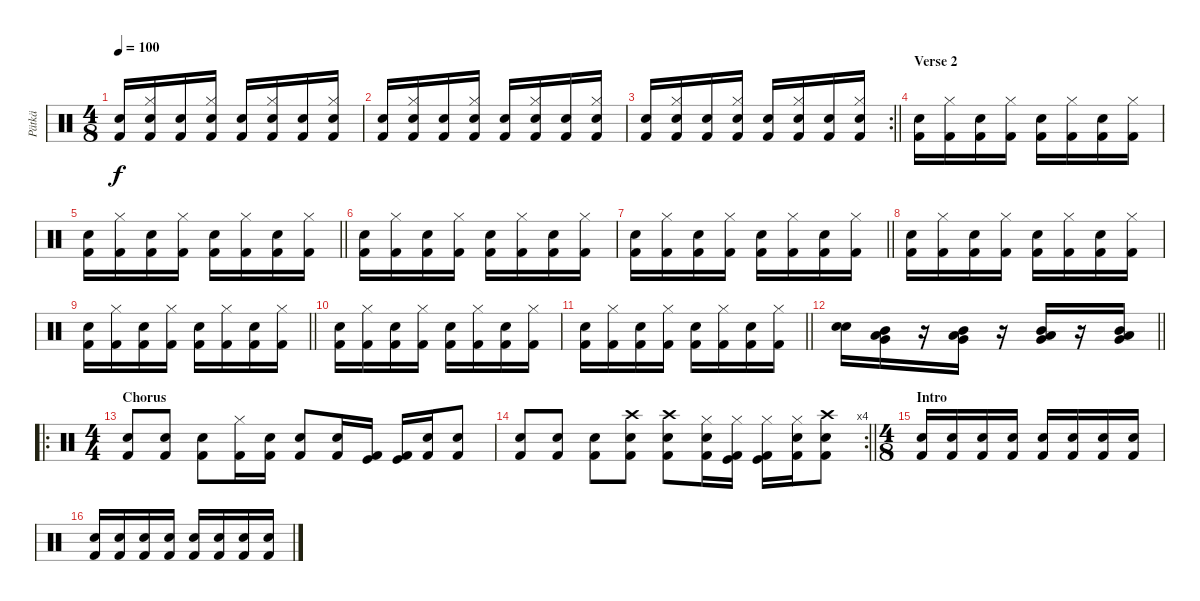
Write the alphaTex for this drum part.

\track ("Pätkä" "Pätkä") {instrument percussion}
\staff {score}
\articulation defaults
\ts (4 8)
\tempo 100
\clef neutral
\ks c
("Snare (hit) 2" "Kick (hit) 2").16{dy f} ("Hi-Hat (closed)" "Electric Snare (hit)" "Kick (hit) 2").16 ("Snare (hit) 2" "Kick (hit) 2").16 ("Hi-Hat (closed)" "Electric Snare (hit)" "Kick (hit) 2").16 ("Snare (hit) 2" "Kick (hit) 2").16 ("Hi-Hat (closed)" "Electric Snare (hit)" "Kick (hit) 2").16 ("Snare (hit) 2" "Kick (hit) 2").16 ("Hi-Hat (closed)" "Electric Snare (hit)" "Kick (hit) 2").16 |
("Snare (hit) 2" "Kick (hit) 2").16 ("Hi-Hat (closed)" "Electric Snare (hit)" "Kick (hit) 2").16 ("Snare (hit) 2" "Kick (hit) 2").16 ("Hi-Hat (closed)" "Electric Snare (hit)" "Kick (hit) 2").16 ("Snare (hit) 2" "Kick (hit) 2").16 ("Hi-Hat (closed)" "Electric Snare (hit)" "Kick (hit) 2").16 ("Snare (hit) 2" "Kick (hit) 2").16 ("Hi-Hat (closed)" "Electric Snare (hit)" "Kick (hit) 2").16 |
\rc 2
\barLineRight lightlight
("Snare (hit) 2" "Kick (hit) 2").16 ("Hi-Hat (closed)" "Electric Snare (hit)" "Kick (hit) 2").16 ("Snare (hit) 2" "Kick (hit) 2").16 ("Hi-Hat (closed)" "Electric Snare (hit)" "Kick (hit) 2").16 ("Snare (hit) 2" "Kick (hit) 2").16 ("Hi-Hat (closed)" "Electric Snare (hit)" "Kick (hit) 2").16 ("Snare (hit) 2" "Kick (hit) 2").16 ("Hi-Hat (closed)" "Electric Snare (hit)" "Kick (hit) 2").16 |
\section ("" "Verse 2")
("Snare (hit) 2" "Kick (hit) 2").16 ("Hi-Hat (closed)" "Kick (hit) 2").16 ("Snare (hit) 2" "Kick (hit) 2").16 ("Hi-Hat (closed)" "Kick (hit) 2").16 ("Snare (hit) 2" "Kick (hit) 2").16 ("Hi-Hat (closed)" "Kick (hit) 2").16 ("Snare (hit) 2" "Kick (hit) 2").16 ("Hi-Hat (closed)" "Kick (hit) 2").16 |
\barLineRight lightlight
("Snare (hit) 2" "Kick (hit) 2").16 ("Hi-Hat (closed)" "Kick (hit) 2").16 ("Snare (hit) 2" "Kick (hit) 2").16 ("Hi-Hat (closed)" "Kick (hit) 2").16 ("Snare (hit) 2" "Kick (hit) 2").16 ("Hi-Hat (closed)" "Kick (hit) 2").16 ("Snare (hit) 2" "Kick (hit) 2").16 ("Hi-Hat (closed)" "Kick (hit) 2").16 |
("Snare (hit) 2" "Kick (hit) 2").16 ("Hi-Hat (closed)" "Kick (hit) 2").16 ("Snare (hit) 2" "Kick (hit) 2").16 ("Hi-Hat (closed)" "Kick (hit) 2").16 ("Snare (hit) 2" "Kick (hit) 2").16 ("Hi-Hat (closed)" "Kick (hit) 2").16 ("Snare (hit) 2" "Kick (hit) 2").16 ("Hi-Hat (closed)" "Kick (hit) 2").16 |
\barLineRight lightlight
("Snare (hit) 2" "Kick (hit) 2").16 ("Hi-Hat (closed)" "Kick (hit) 2").16 ("Snare (hit) 2" "Kick (hit) 2").16 ("Hi-Hat (closed)" "Kick (hit) 2").16 ("Snare (hit) 2" "Kick (hit) 2").16 ("Hi-Hat (closed)" "Kick (hit) 2").16 ("Snare (hit) 2" "Kick (hit) 2").16 ("Hi-Hat (closed)" "Kick (hit) 2").16 |
("Snare (hit) 2" "Kick (hit) 2").16 ("Hi-Hat (closed)" "Kick (hit) 2").16 ("Snare (hit) 2" "Kick (hit) 2").16 ("Hi-Hat (closed)" "Kick (hit) 2").16 ("Snare (hit) 2" "Kick (hit) 2").16 ("Hi-Hat (closed)" "Kick (hit) 2").16 ("Snare (hit) 2" "Kick (hit) 2").16 ("Hi-Hat (closed)" "Kick (hit) 2").16 |
\barLineRight lightlight
("Snare (hit) 2" "Kick (hit) 2").16 ("Hi-Hat (closed)" "Kick (hit) 2").16 ("Snare (hit) 2" "Kick (hit) 2").16 ("Hi-Hat (closed)" "Kick (hit) 2").16 ("Snare (hit) 2" "Kick (hit) 2").16 ("Hi-Hat (closed)" "Kick (hit) 2").16 ("Snare (hit) 2" "Kick (hit) 2").16 ("Hi-Hat (closed)" "Kick (hit) 2").16 |
("Snare (hit) 2" "Kick (hit) 2").16 ("Hi-Hat (closed)" "Kick (hit) 2").16 ("Snare (hit) 2" "Kick (hit) 2").16 ("Hi-Hat (closed)" "Kick (hit) 2").16 ("Snare (hit) 2" "Kick (hit) 2").16 ("Hi-Hat (closed)" "Kick (hit) 2").16 ("Snare (hit) 2" "Kick (hit) 2").16 ("Hi-Hat (closed)" "Kick (hit) 2").16 |
\barLineRight lightlight
("Snare (hit) 2" "Kick (hit) 2").16 ("Hi-Hat (closed)" "Kick (hit) 2").16 ("Snare (hit) 2" "Kick (hit) 2").16 ("Hi-Hat (closed)" "Kick (hit) 2").16 ("Snare (hit) 2" "Kick (hit) 2").16 ("Hi-Hat (closed)" "Kick (hit) 2").16 ("Snare (hit) 2" "Kick (hit) 2").16 ("Hi-Hat (closed)" "Kick (hit) 2").16 |
\barLineRight lightlight
("Snare (hit) 2" "Electric Snare (hit)").16 ("Mid Tom (hit)" "Very Low Tom (hit)" "Low Tom (hit)").16 r.16 ("Mid Tom (hit)" "Very Low Tom (hit)" "Low Tom (hit)").16 r.16 ("Mid Tom (hit)" "Very Low Tom (hit)" "Low Tom (hit)").16 r.16 ("Mid Tom (hit)" "Very Low Tom (hit)" "Low Tom (hit)").16 |
\ro
\ts (4 4)
\section ("" "Chorus")
("Electric Snare (hit)" "Kick (hit) 2").8 ("Snare (hit) 2" "Kick (hit) 2").8 ("Electric Snare (hit)" "Kick (hit) 2").8 ("Hi-Hat (closed)" "Kick (hit) 2").16 ("Snare (hit) 2" "Kick (hit) 2").16 ("Snare (hit) 2" "Kick (hit) 2").8 ("Snare (hit) 2" "Kick (hit) 2").16 ("Kick (hit)" "Kick (hit) 2").16 ("Kick (hit)" "Kick (hit) 2").16 ("Snare (hit) 2" "Kick (hit) 2").16 ("Electric Snare (hit)" "Kick (hit) 2").8 |
\rc 4
\barLineRight lightlight
("Electric Snare (hit)" "Kick (hit) 2").8 ("Snare (hit) 2" "Kick (hit) 2").8 ("Electric Snare (hit)" "Kick (hit) 2").8 ("Crash high (hit)" "Snare (hit) 2" "Kick (hit) 2").8 ("Crash high (hit)" "Electric Snare (hit)" "Kick (hit) 2").8 ("Hi-Hat (closed)" "Snare (hit) 2" "Kick (hit) 2").16 ("Hi-Hat (closed)" "Kick (hit)" "Kick (hit) 2").16 ("Hi-Hat (closed)" "Kick (hit)" "Kick (hit) 2").16 ("Hi-Hat (closed)" "Snare (hit) 2" "Kick (hit) 2").16 ("Crash high (hit)" "Electric Snare (hit)" "Kick (hit) 2").8 |
\ts (4 8)
\section ("" "Intro")
("Snare (hit) 2" "Kick (hit) 2").16 ("Electric Snare (hit)" "Kick (hit) 2").16 ("Snare (hit) 2" "Kick (hit) 2").16 ("Electric Snare (hit)" "Kick (hit) 2").16 ("Snare (hit) 2" "Kick (hit) 2").16 ("Electric Snare (hit)" "Kick (hit) 2").16 ("Snare (hit) 2" "Kick (hit) 2").16 ("Electric Snare (hit)" "Kick (hit) 2").16 |
("Snare (hit) 2" "Kick (hit) 2").16 ("Electric Snare (hit)" "Kick (hit) 2").16 ("Snare (hit) 2" "Kick (hit) 2").16 ("Electric Snare (hit)" "Kick (hit) 2").16 ("Snare (hit) 2" "Kick (hit) 2").16 ("Electric Snare (hit)" "Kick (hit) 2").16 ("Snare (hit) 2" "Kick (hit) 2").16 ("Electric Snare (hit)" "Kick (hit) 2").16
